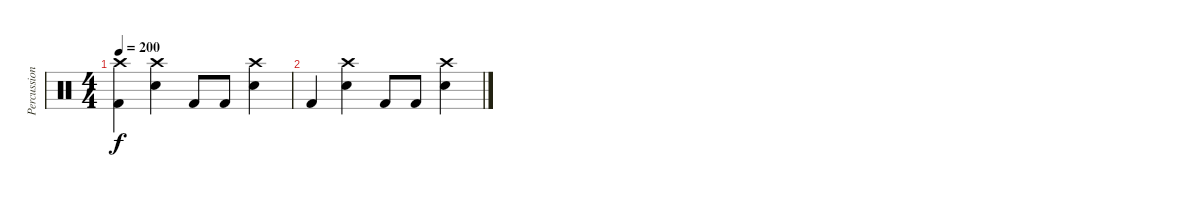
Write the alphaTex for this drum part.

\track ("Percussion" "Percussion") {instrument percussion}
\staff {score}
\articulation defaults
\ts (4 4)
\tempo 200
\clef neutral
\ks c
("Crash high (hit)" "Kick (hit) 2").4{dy f} ("Crash high (hit)" "Snare (hit) 2").4 "Kick (hit) 2".8 "Kick (hit) 2".8 ("Crash high (hit)" "Snare (hit) 2").4 |
"Kick (hit) 2".4 ("Crash high (hit)" "Snare (hit) 2").4 "Kick (hit) 2".8 "Kick (hit) 2".8 ("Crash high (hit)" "Snare (hit) 2").4
